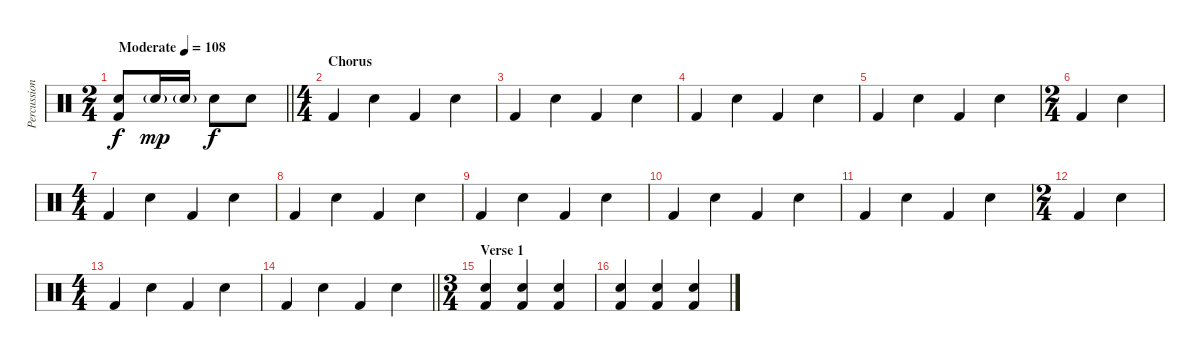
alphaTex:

\track ("Percussion" "Percussion") {instrument percussion}
\staff {score}
\articulation defaults
\ts (2 4)
\tempo (108 "Moderate")
\clef neutral
\barLineRight lightlight
\ks c
("Snare (hit) 2" "Kick (hit) 2").8{dy f} "Snare (hit) 2"{g}.16{dy mp} "Snare (hit) 2"{g}.16 "Snare (hit) 2".8{dy f} "Snare (hit) 2".8 |
\ts (4 4)
\section ("" "Chorus")
"Kick (hit) 2".4 "Snare (hit) 2".4 "Kick (hit) 2".4 "Snare (hit) 2".4 |
"Kick (hit) 2".4 "Snare (hit) 2".4 "Kick (hit) 2".4 "Snare (hit) 2".4 |
"Kick (hit) 2".4 "Snare (hit) 2".4 "Kick (hit) 2".4 "Snare (hit) 2".4 |
"Kick (hit) 2".4 "Snare (hit) 2".4 "Kick (hit) 2".4 "Snare (hit) 2".4 |
\ts (2 4)
"Kick (hit) 2".4 "Snare (hit) 2".4 |
\ts (4 4)
"Kick (hit) 2".4 "Snare (hit) 2".4 "Kick (hit) 2".4 "Snare (hit) 2".4 |
"Kick (hit) 2".4 "Snare (hit) 2".4 "Kick (hit) 2".4 "Snare (hit) 2".4 |
"Kick (hit) 2".4 "Snare (hit) 2".4 "Kick (hit) 2".4 "Snare (hit) 2".4 |
"Kick (hit) 2".4 "Snare (hit) 2".4 "Kick (hit) 2".4 "Snare (hit) 2".4 |
"Kick (hit) 2".4 "Snare (hit) 2".4 "Kick (hit) 2".4 "Snare (hit) 2".4 |
\ts (2 4)
"Kick (hit) 2".4 "Snare (hit) 2".4 |
\ts (4 4)
"Kick (hit) 2".4 "Snare (hit) 2".4 "Kick (hit) 2".4 "Snare (hit) 2".4 |
\barLineRight lightlight "Kick (hit) 2".4 "Snare (hit) 2".4 "Kick (hit) 2".4 "Snare (hit) 2".4
|
\ts (3 4)
\section ("" "Verse 1")
("Snare (hit) 2" "Kick (hit) 2").4 ("Snare (hit) 2" "Kick (hit) 2").4 ("Snare (hit) 2" "Kick (hit) 2").4 |
("Snare (hit) 2" "Kick (hit) 2").4 ("Snare (hit) 2" "Kick (hit) 2").4 ("Snare (hit) 2" "Kick (hit) 2").4
